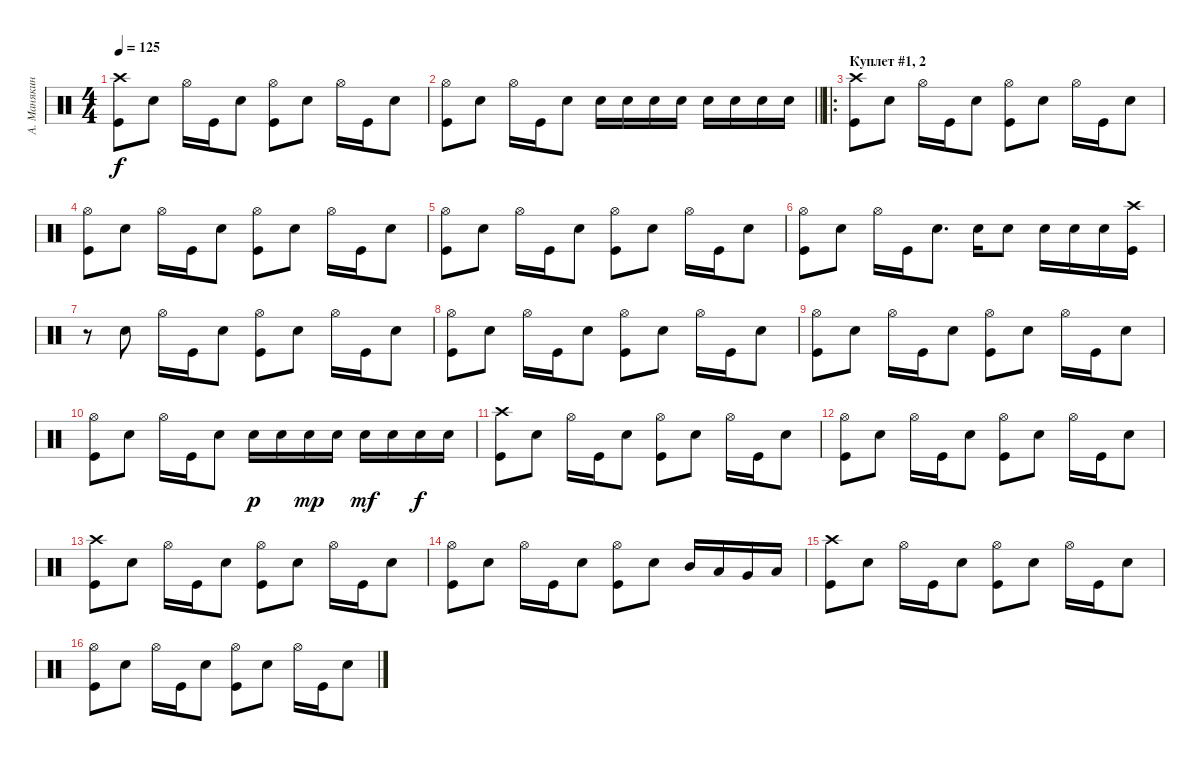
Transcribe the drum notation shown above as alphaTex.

\track ("А. Манякин" "А. Манякин") {instrument percussion}
\staff {score}
\articulation defaults
\ts (4 4)
\tempo 125
\clef neutral
\ks c
("Kick (hit)" "Crash high (hit)").8{dy f} "Electric Snare (hit)".8 "Hi-Hat (open)".16 "Kick (hit)".16 "Electric Snare (hit)".8 ("Kick (hit)" "Hi-Hat (open)").8 "Electric Snare (hit)".8 "Hi-Hat (open)".16 "Kick (hit)".16 "Electric Snare (hit)".8 |
\barLineRight lightlight
("Kick (hit)" "Hi-Hat (open)").8 "Electric Snare (hit)".8 "Hi-Hat (open)".16 "Kick (hit)".16 "Electric Snare (hit)".8 "Electric Snare (hit)".16 "Electric Snare (hit)".16 "Electric Snare (hit)".16 "Electric Snare (hit)".16 "Electric Snare (hit)".16 "Electric Snare (hit)".16 "Electric Snare (hit)".16 "Electric Snare (hit)".16 |
\ro
\section ("" "Куплет #1, 2")
("Kick (hit)" "Crash high (hit)").8 "Electric Snare (hit)".8 "Hi-Hat (open)".16 "Kick (hit)".16 "Electric Snare (hit)".8 ("Kick (hit)" "Hi-Hat (open)").8 "Electric Snare (hit)".8 "Hi-Hat (open)".16 "Kick (hit)".16 "Electric Snare (hit)".8 |
("Kick (hit)" "Hi-Hat (open)").8 "Electric Snare (hit)".8 "Hi-Hat (open)".16 "Kick (hit)".16 "Electric Snare (hit)".8 ("Kick (hit)" "Hi-Hat (open)").8 "Electric Snare (hit)".8 "Hi-Hat (open)".16 "Kick (hit)".16 "Electric Snare (hit)".8 |
("Kick (hit)" "Hi-Hat (open)").8 "Electric Snare (hit)".8 "Hi-Hat (open)".16 "Kick (hit)".16 "Electric Snare (hit)".8 ("Kick (hit)" "Hi-Hat (open)").8 "Electric Snare (hit)".8 "Hi-Hat (open)".16 "Kick (hit)".16 "Electric Snare (hit)".8 |
("Kick (hit)" "Hi-Hat (open)").8 "Electric Snare (hit)".8 "Hi-Hat (open)".16 "Kick (hit)".16 "Electric Snare (hit)".8{d} "Electric Snare (hit)".16 "Electric Snare (hit)".8 "Electric Snare (hit)".16 "Electric Snare (hit)".16 "Electric Snare (hit)".16 ("Kick (hit)" "Crash high (hit)").16 |
r.8 "Electric Snare (hit)".8 "Hi-Hat (open)".16 "Kick (hit)".16 "Electric Snare (hit)".8 ("Kick (hit)" "Hi-Hat (open)").8 "Electric Snare (hit)".8 "Hi-Hat (open)".16 "Kick (hit)".16 "Electric Snare (hit)".8 |
("Kick (hit)" "Hi-Hat (open)").8 "Electric Snare (hit)".8 "Hi-Hat (open)".16 "Kick (hit)".16 "Electric Snare (hit)".8 ("Kick (hit)" "Hi-Hat (open)").8 "Electric Snare (hit)".8 "Hi-Hat (open)".16 "Kick (hit)".16 "Electric Snare (hit)".8 |
("Kick (hit)" "Hi-Hat (open)").8 "Electric Snare (hit)".8 "Hi-Hat (open)".16 "Kick (hit)".16 "Electric Snare (hit)".8 ("Kick (hit)" "Hi-Hat (open)").8 "Electric Snare (hit)".8 "Hi-Hat (open)".16 "Kick (hit)".16 "Electric Snare (hit)".8 |
("Kick (hit)" "Hi-Hat (open)").8 "Electric Snare (hit)".8 "Hi-Hat (open)".16 "Kick (hit)".16 "Electric Snare (hit)".8 "Electric Snare (hit)".16{dy p} "Electric Snare (hit)".16 "Electric Snare (hit)".16{dy mp} "Electric Snare (hit)".16 "Electric Snare (hit)".16{dy mf} "Electric Snare (hit)".16 "Electric Snare (hit)".16{dy f} "Electric Snare (hit)".16 |
("Kick (hit)" "Crash high (hit)").8 "Electric Snare (hit)".8 "Hi-Hat (open)".16 "Kick (hit)".16 "Electric Snare (hit)".8 ("Kick (hit)" "Hi-Hat (open)").8 "Electric Snare (hit)".8 "Hi-Hat (open)".16 "Kick (hit)".16 "Electric Snare (hit)".8 |
("Kick (hit)" "Hi-Hat (open)").8 "Electric Snare (hit)".8 "Hi-Hat (open)".16 "Kick (hit)".16 "Electric Snare (hit)".8 ("Kick (hit)" "Hi-Hat (open)").8 "Electric Snare (hit)".8 "Hi-Hat (open)".16 "Kick (hit)".16 "Electric Snare (hit)".8 |
("Kick (hit)" "Crash high (hit)").8 "Electric Snare (hit)".8 "Hi-Hat (open)".16 "Kick (hit)".16 "Electric Snare (hit)".8 ("Kick (hit)" "Hi-Hat (open)").8 "Electric Snare (hit)".8 "Hi-Hat (open)".16 "Kick (hit)".16 "Electric Snare (hit)".8 |
("Kick (hit)" "Hi-Hat (open)").8 "Electric Snare (hit)".8 "Hi-Hat (open)".16 "Kick (hit)".16 "Electric Snare (hit)".8 ("Kick (hit)" "Hi-Hat (open)").8 "Electric Snare (hit)".8 "Mid Tom (hit)".16 "Low Tom (hit)".16 "Very Low Tom (hit)".16 "Low Floor Tom (hit)".16 |
("Kick (hit)" "Crash high (hit)").8 "Electric Snare (hit)".8 "Hi-Hat (open)".16 "Kick (hit)".16 "Electric Snare (hit)".8 ("Kick (hit)" "Hi-Hat (open)").8 "Electric Snare (hit)".8 "Hi-Hat (open)".16 "Kick (hit)".16 "Electric Snare (hit)".8 |
("Kick (hit)" "Hi-Hat (open)").8 "Electric Snare (hit)".8 "Hi-Hat (open)".16 "Kick (hit)".16 "Electric Snare (hit)".8 ("Kick (hit)" "Hi-Hat (open)").8 "Electric Snare (hit)".8 "Hi-Hat (open)".16 "Kick (hit)".16 "Electric Snare (hit)".8
